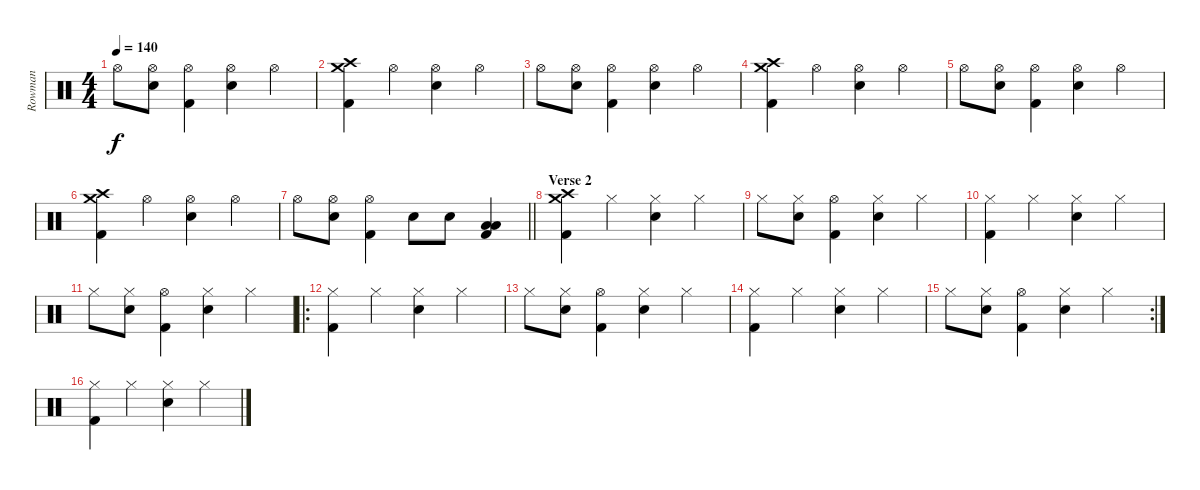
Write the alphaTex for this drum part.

\track ("Rowman" "Rowman") {instrument percussion}
\staff {score}
\articulation defaults
\ts (4 4)
\tempo 140
\clef neutral
\ks c "Hi-Hat (open)".8{dy f}
("Hi-Hat (open)" "Snare (hit) 2").8 ("Hi-Hat (open)" "Kick (hit) 2").4 ("Hi-Hat (open)" "Snare (hit) 2").4 "Hi-Hat (open)".4 |
("Crash high (hit)" "Crash medium (hit)" "Kick (hit) 2").4 "Hi-Hat (open)".4 ("Hi-Hat (open)" "Snare (hit) 2").4 "Hi-Hat (open)".4 |
"Hi-Hat (open)".8 ("Hi-Hat (open)" "Snare (hit) 2").8 ("Hi-Hat (open)" "Kick (hit) 2").4 ("Hi-Hat (open)" "Snare (hit) 2").4 "Hi-Hat (open)".4 |
("Crash high (hit)" "Crash medium (hit)" "Kick (hit) 2").4 "Hi-Hat (open)".4 ("Hi-Hat (open)" "Snare (hit) 2").4 "Hi-Hat (open)".4 |
"Hi-Hat (open)".8 ("Hi-Hat (open)" "Snare (hit) 2").8 ("Hi-Hat (open)" "Kick (hit) 2").4 ("Hi-Hat (open)" "Snare (hit) 2").4 "Hi-Hat (open)".4 |
("Crash high (hit)" "Crash medium (hit)" "Kick (hit) 2").4 "Hi-Hat (open)".4 ("Hi-Hat (open)" "Snare (hit) 2").4 "Hi-Hat (open)".4 |
\barLineRight lightlight "Hi-Hat (open)".8
("Hi-Hat (open)" "Snare (hit) 2").8 ("Hi-Hat (open)" "Kick (hit) 2").4 "Snare (hit) 2".8 "Snare (hit) 2".8 ("Low Tom (hit)" "Low Floor Tom (hit)" "Kick (hit) 2").4 |
\section ("" "Verse 2")
("Crash high (hit)" "Crash medium (hit)" "Kick (hit) 2").4 "Hi-Hat (closed)".4 ("Hi-Hat (closed)" "Snare (hit) 2").4 "Hi-Hat (closed)".4 |
"Hi-Hat (closed)".8 ("Hi-Hat (closed)" "Snare (hit) 2").8 ("Hi-Hat (open)" "Kick (hit) 2").4 ("Hi-Hat (closed)" "Snare (hit) 2").4 "Hi-Hat (closed)".4 |
("Hi-Hat (closed)" "Kick (hit) 2").4 "Hi-Hat (closed)".4 ("Hi-Hat (closed)" "Snare (hit) 2").4 "Hi-Hat (closed)".4 |
"Hi-Hat (closed)".8 ("Hi-Hat (closed)" "Snare (hit) 2").8 ("Hi-Hat (open)" "Kick (hit) 2").4 ("Hi-Hat (closed)" "Snare (hit) 2").4 "Hi-Hat (closed)".4 |
\ro
("Hi-Hat (closed)" "Kick (hit) 2").4 "Hi-Hat (closed)".4 ("Hi-Hat (closed)" "Snare (hit) 2").4 "Hi-Hat (closed)".4 |
"Hi-Hat (closed)".8 ("Hi-Hat (closed)" "Snare (hit) 2").8 ("Hi-Hat (open)" "Kick (hit) 2").4 ("Hi-Hat (closed)" "Snare (hit) 2").4 "Hi-Hat (closed)".4 |
("Hi-Hat (closed)" "Kick (hit) 2").4 "Hi-Hat (closed)".4 ("Hi-Hat (closed)" "Snare (hit) 2").4 "Hi-Hat (closed)".4 |
\rc 2 "Hi-Hat (closed)".8
("Hi-Hat (closed)" "Snare (hit) 2").8 ("Hi-Hat (open)" "Kick (hit) 2").4 ("Hi-Hat (closed)" "Snare (hit) 2").4 "Hi-Hat (closed)".4 |
("Hi-Hat (closed)" "Kick (hit) 2").4 "Hi-Hat (closed)".4 ("Hi-Hat (closed)" "Snare (hit) 2").4 "Hi-Hat (closed)".4
